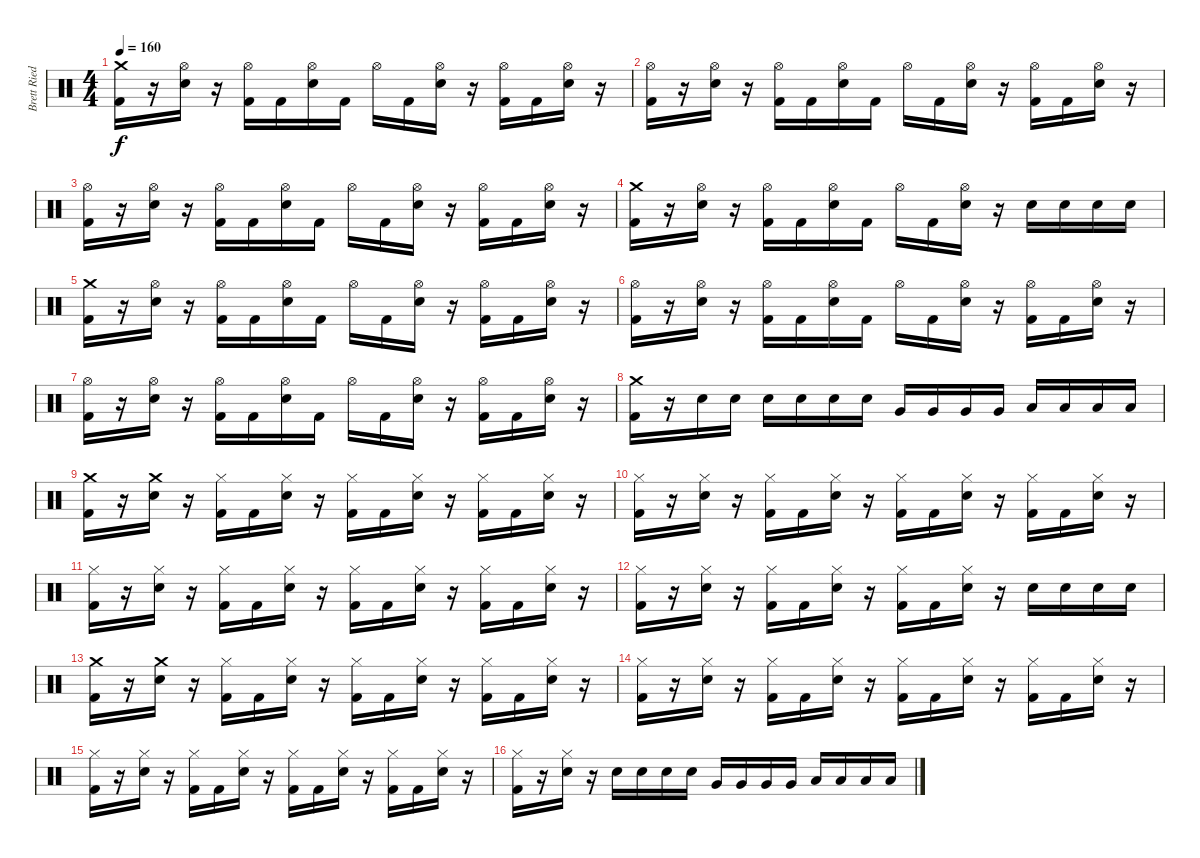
\track ("Brett Ried" "Brett Ried") {instrument percussion}
\staff {score}
\articulation defaults
\ts (4 4)
\tempo 160
\clef neutral
\ks c
("Crash medium (hit)" "Kick (hit) 2").16{dy f} r.16 ("Hi-Hat (open)" "Snare (hit) 2").16 r.16 ("Hi-Hat (open)" "Kick (hit) 2").16 "Kick (hit) 2".16 ("Hi-Hat (open)" "Snare (hit) 2").16 "Kick (hit) 2".16 "Hi-Hat (open)".16 "Kick (hit) 2".16 ("Hi-Hat (open)" "Snare (hit) 2").16 r.16 ("Hi-Hat (open)" "Kick (hit) 2").16 "Kick (hit) 2".16 ("Hi-Hat (open)" "Snare (hit) 2").16 r.16 |
("Hi-Hat (open)" "Kick (hit) 2").16 r.16 ("Hi-Hat (open)" "Snare (hit) 2").16 r.16 ("Hi-Hat (open)" "Kick (hit) 2").16 "Kick (hit) 2".16 ("Hi-Hat (open)" "Snare (hit) 2").16 "Kick (hit) 2".16 "Hi-Hat (open)".16 "Kick (hit) 2".16 ("Hi-Hat (open)" "Snare (hit) 2").16 r.16 ("Hi-Hat (open)" "Kick (hit) 2").16 "Kick (hit) 2".16 ("Hi-Hat (open)" "Snare (hit) 2").16 r.16 |
("Hi-Hat (open)" "Kick (hit) 2").16 r.16 ("Hi-Hat (open)" "Snare (hit) 2").16 r.16 ("Hi-Hat (open)" "Kick (hit) 2").16 "Kick (hit) 2".16 ("Hi-Hat (open)" "Snare (hit) 2").16 "Kick (hit) 2".16 "Hi-Hat (open)".16 "Kick (hit) 2".16 ("Hi-Hat (open)" "Snare (hit) 2").16 r.16 ("Hi-Hat (open)" "Kick (hit) 2").16 "Kick (hit) 2".16 ("Hi-Hat (open)" "Snare (hit) 2").16 r.16 |
("Crash medium (hit)" "Kick (hit) 2").16 r.16 ("Hi-Hat (open)" "Snare (hit) 2").16 r.16 ("Hi-Hat (open)" "Kick (hit) 2").16 "Kick (hit) 2".16 ("Hi-Hat (open)" "Snare (hit) 2").16 "Kick (hit) 2".16 "Hi-Hat (open)".16 "Kick (hit) 2".16 ("Hi-Hat (open)" "Snare (hit) 2").16 r.16 "Snare (hit) 2".16 "Snare (hit) 2".16 "Snare (hit) 2".16 "Snare (hit) 2".16 |
("Crash medium (hit)" "Kick (hit) 2").16 r.16 ("Hi-Hat (open)" "Snare (hit) 2").16 r.16 ("Hi-Hat (open)" "Kick (hit) 2").16 "Kick (hit) 2".16 ("Hi-Hat (open)" "Snare (hit) 2").16 "Kick (hit) 2".16 "Hi-Hat (open)".16 "Kick (hit) 2".16 ("Hi-Hat (open)" "Snare (hit) 2").16 r.16 ("Hi-Hat (open)" "Kick (hit) 2").16 "Kick (hit) 2".16 ("Hi-Hat (open)" "Snare (hit) 2").16 r.16 |
("Hi-Hat (open)" "Kick (hit) 2").16 r.16 ("Hi-Hat (open)" "Snare (hit) 2").16 r.16 ("Hi-Hat (open)" "Kick (hit) 2").16 "Kick (hit) 2".16 ("Hi-Hat (open)" "Snare (hit) 2").16 "Kick (hit) 2".16 "Hi-Hat (open)".16 "Kick (hit) 2".16 ("Hi-Hat (open)" "Snare (hit) 2").16 r.16 ("Hi-Hat (open)" "Kick (hit) 2").16 "Kick (hit) 2".16 ("Hi-Hat (open)" "Snare (hit) 2").16 r.16 |
("Hi-Hat (open)" "Kick (hit) 2").16 r.16 ("Hi-Hat (open)" "Snare (hit) 2").16 r.16 ("Hi-Hat (open)" "Kick (hit) 2").16 "Kick (hit) 2".16 ("Hi-Hat (open)" "Snare (hit) 2").16 "Kick (hit) 2".16 "Hi-Hat (open)".16 "Kick (hit) 2".16 ("Hi-Hat (open)" "Snare (hit) 2").16 r.16 ("Hi-Hat (open)" "Kick (hit) 2").16 "Kick (hit) 2".16 ("Hi-Hat (open)" "Snare (hit) 2").16 r.16 |
("Crash medium (hit)" "Kick (hit) 2").16 r.16 "Snare (hit) 2".16 "Snare (hit) 2".16 "Snare (hit) 2".16 "Snare (hit) 2".16 "Snare (hit) 2".16 "Snare (hit) 2".16 "Very Low Tom (hit)".16 "Very Low Tom (hit)".16 "Very Low Tom (hit)".16 "Very Low Tom (hit)".16 "Low Floor Tom (hit)".16 "Low Floor Tom (hit)".16 "Low Floor Tom (hit)".16 "Low Floor Tom (hit)".16 |
("Crash medium (hit)" "Kick (hit) 2").16 r.16 ("Crash medium (hit)" "Snare (hit) 2").16 r.16 ("Hi-Hat (closed)" "Kick (hit) 2").16 "Kick (hit) 2".16 ("Hi-Hat (closed)" "Snare (hit) 2").16 r.16 ("Hi-Hat (closed)" "Kick (hit) 2").16 "Kick (hit) 2".16 ("Hi-Hat (closed)" "Snare (hit) 2").16 r.16 ("Hi-Hat (closed)" "Kick (hit) 2").16 "Kick (hit) 2".16 ("Hi-Hat (closed)" "Snare (hit) 2").16 r.16 |
("Hi-Hat (closed)" "Kick (hit) 2").16 r.16 ("Hi-Hat (closed)" "Snare (hit) 2").16 r.16 ("Hi-Hat (closed)" "Kick (hit) 2").16 "Kick (hit) 2".16 ("Hi-Hat (closed)" "Snare (hit) 2").16 r.16 ("Hi-Hat (closed)" "Kick (hit) 2").16 "Kick (hit) 2".16 ("Hi-Hat (closed)" "Snare (hit) 2").16 r.16 ("Hi-Hat (closed)" "Kick (hit) 2").16 "Kick (hit) 2".16 ("Hi-Hat (closed)" "Snare (hit) 2").16 r.16 |
("Hi-Hat (closed)" "Kick (hit) 2").16 r.16 ("Hi-Hat (closed)" "Snare (hit) 2").16 r.16 ("Hi-Hat (closed)" "Kick (hit) 2").16 "Kick (hit) 2".16 ("Hi-Hat (closed)" "Snare (hit) 2").16 r.16 ("Hi-Hat (closed)" "Kick (hit) 2").16 "Kick (hit) 2".16 ("Hi-Hat (closed)" "Snare (hit) 2").16 r.16 ("Hi-Hat (closed)" "Kick (hit) 2").16 "Kick (hit) 2".16 ("Hi-Hat (closed)" "Snare (hit) 2").16 r.16 |
("Hi-Hat (closed)" "Kick (hit) 2").16 r.16 ("Hi-Hat (closed)" "Snare (hit) 2").16 r.16 ("Hi-Hat (closed)" "Kick (hit) 2").16 "Kick (hit) 2".16 ("Hi-Hat (closed)" "Snare (hit) 2").16 r.16 ("Hi-Hat (closed)" "Kick (hit) 2").16 "Kick (hit) 2".16 ("Hi-Hat (closed)" "Snare (hit) 2").16 r.16 "Snare (hit) 2".16 "Snare (hit) 2".16 "Snare (hit) 2".16 "Snare (hit) 2".16 |
("Crash medium (hit)" "Kick (hit) 2").16 r.16 ("Crash medium (hit)" "Snare (hit) 2").16 r.16 ("Hi-Hat (closed)" "Kick (hit) 2").16 "Kick (hit) 2".16 ("Hi-Hat (closed)" "Snare (hit) 2").16 r.16 ("Hi-Hat (closed)" "Kick (hit) 2").16 "Kick (hit) 2".16 ("Hi-Hat (closed)" "Snare (hit) 2").16 r.16 ("Hi-Hat (closed)" "Kick (hit) 2").16 "Kick (hit) 2".16 ("Hi-Hat (closed)" "Snare (hit) 2").16 r.16 |
("Hi-Hat (closed)" "Kick (hit) 2").16 r.16 ("Hi-Hat (closed)" "Snare (hit) 2").16 r.16 ("Hi-Hat (closed)" "Kick (hit) 2").16 "Kick (hit) 2".16 ("Hi-Hat (closed)" "Snare (hit) 2").16 r.16 ("Hi-Hat (closed)" "Kick (hit) 2").16 "Kick (hit) 2".16 ("Hi-Hat (closed)" "Snare (hit) 2").16 r.16 ("Hi-Hat (closed)" "Kick (hit) 2").16 "Kick (hit) 2".16 ("Hi-Hat (closed)" "Snare (hit) 2").16 r.16 |
("Hi-Hat (closed)" "Kick (hit) 2").16 r.16 ("Hi-Hat (closed)" "Snare (hit) 2").16 r.16 ("Hi-Hat (closed)" "Kick (hit) 2").16 "Kick (hit) 2".16 ("Hi-Hat (closed)" "Snare (hit) 2").16 r.16 ("Hi-Hat (closed)" "Kick (hit) 2").16 "Kick (hit) 2".16 ("Hi-Hat (closed)" "Snare (hit) 2").16 r.16 ("Hi-Hat (closed)" "Kick (hit) 2").16 "Kick (hit) 2".16 ("Hi-Hat (closed)" "Snare (hit) 2").16 r.16 |
("Hi-Hat (closed)" "Kick (hit) 2").16 r.16 ("Hi-Hat (closed)" "Snare (hit) 2").16 r.16 "Snare (hit) 2".16 "Snare (hit) 2".16 "Snare (hit) 2".16 "Snare (hit) 2".16 "Very Low Tom (hit)".16 "Very Low Tom (hit)".16 "Very Low Tom (hit)".16 "Very Low Tom (hit)".16 "Low Floor Tom (hit)".16 "Low Floor Tom (hit)".16 "Low Floor Tom (hit)".16 "Low Floor Tom (hit)".16
